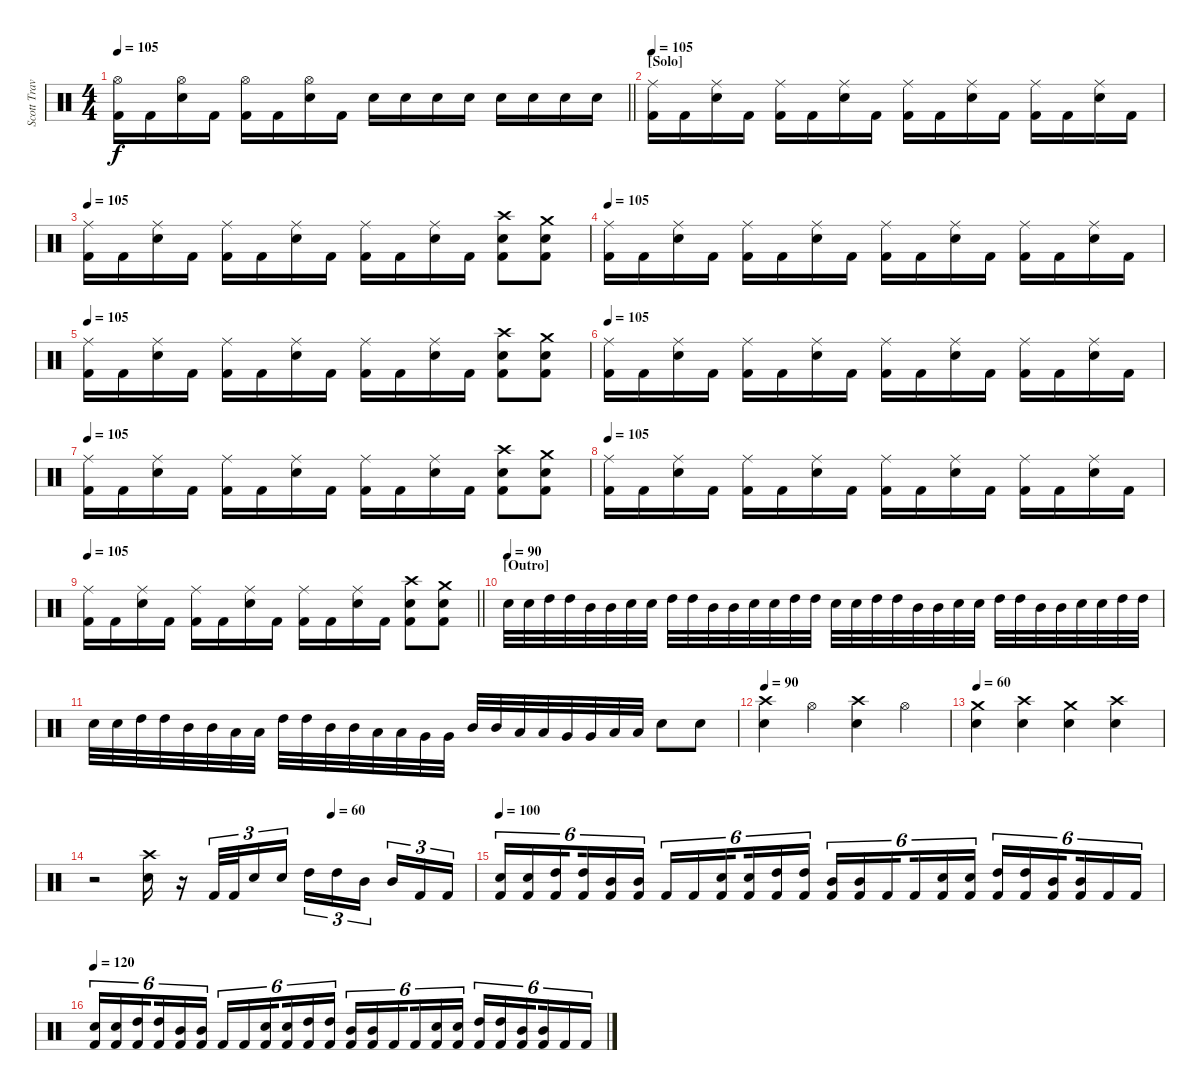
\track ("Scott Travis" "Scott Trav") {instrument percussion}
\staff {score}
\articulation defaults
\ts (4 4)
\tempo 105
\clef neutral
\barLineRight lightlight
\ks c
("Hi-Hat (open)" "Kick (hit) 2").16{dy f} "Kick (hit) 2".16 ("Hi-Hat (open)" "Snare (hit) 2").16 "Kick (hit) 2".16 ("Hi-Hat (open)" "Kick (hit) 2").16 "Kick (hit) 2".16 ("Hi-Hat (open)" "Snare (hit) 2").16 "Kick (hit) 2".16 "Snare (hit) 2".16 "Snare (hit) 2".16 "Snare (hit) 2".16 "Snare (hit) 2".16 "Snare (hit) 2".16 "Snare (hit) 2".16 "Snare (hit) 2".16 "Snare (hit) 2".16 |
\section ("" "[Solo]")
\tempo 105
("Ride (middle)" "Kick (hit) 2").16 "Kick (hit) 2".16 ("Ride (middle)" "Snare (hit) 2").16 "Kick (hit) 2".16 ("Ride (middle)" "Kick (hit) 2").16 "Kick (hit) 2".16 ("Ride (middle)" "Snare (hit) 2").16 "Kick (hit) 2".16 ("Ride (middle)" "Kick (hit) 2").16 "Kick (hit) 2".16 ("Ride (middle)" "Snare (hit) 2").16 "Kick (hit) 2".16 ("Ride (middle)" "Kick (hit) 2").16 "Kick (hit) 2".16 ("Ride (middle)" "Snare (hit) 2").16 "Kick (hit) 2".16 |
\tempo 105
("Ride (middle)" "Kick (hit) 2").16 "Kick (hit) 2".16 ("Ride (middle)" "Snare (hit) 2").16 "Kick (hit) 2".16 ("Ride (middle)" "Kick (hit) 2").16 "Kick (hit) 2".16 ("Ride (middle)" "Snare (hit) 2").16 "Kick (hit) 2".16 ("Ride (middle)" "Kick (hit) 2").16 "Kick (hit) 2".16 ("Ride (middle)" "Snare (hit) 2").16 "Kick (hit) 2".16 ("Crash high (hit)" "Snare (hit) 2" "Kick (hit) 2").8 ("Crash medium (hit)" "Snare (hit) 2" "Kick (hit) 2").8 |
\tempo 105
("Ride (middle)" "Kick (hit) 2").16 "Kick (hit) 2".16 ("Ride (middle)" "Snare (hit) 2").16 "Kick (hit) 2".16 ("Ride (middle)" "Kick (hit) 2").16 "Kick (hit) 2".16 ("Ride (middle)" "Snare (hit) 2").16 "Kick (hit) 2".16 ("Ride (middle)" "Kick (hit) 2").16 "Kick (hit) 2".16 ("Ride (middle)" "Snare (hit) 2").16 "Kick (hit) 2".16 ("Ride (middle)" "Kick (hit) 2").16 "Kick (hit) 2".16 ("Ride (middle)" "Snare (hit) 2").16 "Kick (hit) 2".16 |
\tempo 105
("Ride (middle)" "Kick (hit) 2").16 "Kick (hit) 2".16 ("Ride (middle)" "Snare (hit) 2").16 "Kick (hit) 2".16 ("Ride (middle)" "Kick (hit) 2").16 "Kick (hit) 2".16 ("Ride (middle)" "Snare (hit) 2").16 "Kick (hit) 2".16 ("Ride (middle)" "Kick (hit) 2").16 "Kick (hit) 2".16 ("Ride (middle)" "Snare (hit) 2").16 "Kick (hit) 2".16 ("Crash high (hit)" "Snare (hit) 2" "Kick (hit) 2").8 ("Crash medium (hit)" "Snare (hit) 2" "Kick (hit) 2").8 |
\tempo 105
("Ride (middle)" "Kick (hit) 2").16 "Kick (hit) 2".16 ("Ride (middle)" "Snare (hit) 2").16 "Kick (hit) 2".16 ("Ride (middle)" "Kick (hit) 2").16 "Kick (hit) 2".16 ("Ride (middle)" "Snare (hit) 2").16 "Kick (hit) 2".16 ("Ride (middle)" "Kick (hit) 2").16 "Kick (hit) 2".16 ("Ride (middle)" "Snare (hit) 2").16 "Kick (hit) 2".16 ("Ride (middle)" "Kick (hit) 2").16 "Kick (hit) 2".16 ("Ride (middle)" "Snare (hit) 2").16 "Kick (hit) 2".16 |
\tempo 105
("Ride (middle)" "Kick (hit) 2").16 "Kick (hit) 2".16 ("Ride (middle)" "Snare (hit) 2").16 "Kick (hit) 2".16 ("Ride (middle)" "Kick (hit) 2").16 "Kick (hit) 2".16 ("Ride (middle)" "Snare (hit) 2").16 "Kick (hit) 2".16 ("Ride (middle)" "Kick (hit) 2").16 "Kick (hit) 2".16 ("Ride (middle)" "Snare (hit) 2").16 "Kick (hit) 2".16 ("Crash high (hit)" "Snare (hit) 2" "Kick (hit) 2").8 ("Crash medium (hit)" "Snare (hit) 2" "Kick (hit) 2").8 |
\tempo 105
("Ride (middle)" "Kick (hit) 2").16 "Kick (hit) 2".16 ("Ride (middle)" "Snare (hit) 2").16 "Kick (hit) 2".16 ("Ride (middle)" "Kick (hit) 2").16 "Kick (hit) 2".16 ("Ride (middle)" "Snare (hit) 2").16 "Kick (hit) 2".16 ("Ride (middle)" "Kick (hit) 2").16 "Kick (hit) 2".16 ("Ride (middle)" "Snare (hit) 2").16 "Kick (hit) 2".16 ("Ride (middle)" "Kick (hit) 2").16 "Kick (hit) 2".16 ("Ride (middle)" "Snare (hit) 2").16 "Kick (hit) 2".16 |
\tempo 105
\barLineRight lightlight
("Ride (middle)" "Kick (hit) 2").16 "Kick (hit) 2".16 ("Ride (middle)" "Snare (hit) 2").16 "Kick (hit) 2".16 ("Ride (middle)" "Kick (hit) 2").16 "Kick (hit) 2".16 ("Ride (middle)" "Snare (hit) 2").16 "Kick (hit) 2".16 ("Ride (middle)" "Kick (hit) 2").16 "Kick (hit) 2".16 ("Ride (middle)" "Snare (hit) 2").16 "Kick (hit) 2".16 ("Crash high (hit)" "Snare (hit) 2" "Kick (hit) 2").8 ("Crash medium (hit)" "Snare (hit) 2" "Kick (hit) 2").8 |
\section ("" "[Outro]")
\tempo (90)
"Snare (hit) 2".32 "Snare (hit) 2".32 "High Tom (hit)".32 "High Tom (hit)".32 "Mid Tom (hit)".32 "Mid Tom (hit)".32 "Snare (hit) 2".32 "Snare (hit) 2".32 "High Tom (hit)".32 "High Tom (hit)".32 "Mid Tom (hit)".32 "Mid Tom (hit)".32 "Snare (hit) 2".32 "Snare (hit) 2".32 "High Tom (hit)".32 "High Tom (hit)".32 "Snare (hit) 2".32 "Snare (hit) 2".32 "High Tom (hit)".32 "High Tom (hit)".32 "Mid Tom (hit)".32 "Mid Tom (hit)".32 "Snare (hit) 2".32 "Snare (hit) 2".32 "High Tom (hit)".32 "High Tom (hit)".32 "Mid Tom (hit)".32 "Mid Tom (hit)".32 "Snare (hit) 2".32 "Snare (hit) 2".32 "High Tom (hit)".32 "High Tom (hit)".32 |
"Snare (hit) 2".32 "Snare (hit) 2".32 "High Tom (hit)".32 "High Tom (hit)".32 "Mid Tom (hit)".32 "Mid Tom (hit)".32 "Low Tom (hit)".32 "Low Tom (hit)".32 "High Tom (hit)".32 "High Tom (hit)".32 "Mid Tom (hit)".32 "Mid Tom (hit)".32 "Low Tom (hit)".32 "Low Tom (hit)".32 "Very Low Tom (hit)".32 "Very Low Tom (hit)".32 "Mid Tom (hit)".32 "Mid Tom (hit)".32 "Low Tom (hit)".32 "Low Tom (hit)".32 "Very Low Tom (hit)".32 "Very Low Tom (hit)".32 "Low Floor Tom (hit)".32 "Low Floor Tom (hit)".32 "Snare (hit) 2".8 "Snare (hit) 2".8 |
\tempo 90
("Crash high (hit)" "Snare (hit) 2").4 "Hi-Hat (open)".4 ("Crash high (hit)" "Snare (hit) 2").4 "Hi-Hat (open)".4 |
\tempo 60
("Crash medium (hit)" "Snare (hit) 2").4 ("Crash high (hit)" "Snare (hit) 2").4 ("Crash medium (hit)" "Snare (hit) 2").4 ("Crash high (hit)" "Snare (hit) 2").4 |
\tempo (60 0.625)
r.2 ("Crash high (hit)" "Snare (hit) 2").16 r.16 "Kick (hit) 2".32{tu (3 2)} "Kick (hit) 2".32{tu (3 2)} "Snare (hit) 2".16{tu (3 2)} "Snare (hit) 2".16{tu (3 2)} "High Tom (hit)".16{tu (3 2)} "High Tom (hit)".16{tu (3 2)} "Mid Tom (hit)".16{tu (3 2) beam splitsecondary} "Mid Tom (hit)".16{tu (3 2)} "Kick (hit) 2".16{tu (3 2)} "Kick (hit) 2".16{tu (3 2)} |
\tempo 100
("Snare (hit) 2" "Kick (hit) 2").16{tu (6 4)} ("Snare (hit) 2" "Kick (hit) 2").16{tu (6 4)} ("High Tom (hit)" "Kick (hit) 2").16{tu (6 4) beam splitsecondary} ("High Tom (hit)" "Kick (hit) 2").16{tu (6 4)} ("Mid Tom (hit)" "Kick (hit) 2").16{tu (6 4)} ("Mid Tom (hit)" "Kick (hit) 2").16{tu (6 4)} "Kick (hit) 2".16{tu (6 4)} "Kick (hit) 2".16{tu (6 4)} ("Snare (hit) 2" "Kick (hit) 2").16{tu (6 4) beam splitsecondary} ("Snare (hit) 2" "Kick (hit) 2").16{tu (6 4)} ("High Tom (hit)" "Kick (hit) 2").16{tu (6 4)} ("High Tom (hit)" "Kick (hit) 2").16{tu (6 4)} ("Mid Tom (hit)" "Kick (hit) 2").16{tu (6 4)} ("Mid Tom (hit)" "Kick (hit) 2").16{tu (6 4)} "Kick (hit) 2".16{tu (6 4) beam splitsecondary} "Kick (hit) 2".16{tu (6 4)} ("Snare (hit) 2" "Kick (hit) 2").16{tu (6 4)} ("Snare (hit) 2" "Kick (hit) 2").16{tu (6 4)} ("High Tom (hit)" "Kick (hit) 2").16{tu (6 4)} ("High Tom (hit)" "Kick (hit) 2").16{tu (6 4)} ("Mid Tom (hit)" "Kick (hit) 2").16{tu (6 4) beam splitsecondary} ("Mid Tom (hit)" "Kick (hit) 2").16{tu (6 4)} "Kick (hit) 2".16{tu (6 4)} "Kick (hit) 2".16{tu (6 4)} |
\tempo 120
("Snare (hit) 2" "Kick (hit) 2").16{tu (6 4)} ("Snare (hit) 2" "Kick (hit) 2").16{tu (6 4)} ("High Tom (hit)" "Kick (hit) 2").16{tu (6 4) beam splitsecondary} ("High Tom (hit)" "Kick (hit) 2").16{tu (6 4)} ("Mid Tom (hit)" "Kick (hit) 2").16{tu (6 4)} ("Mid Tom (hit)" "Kick (hit) 2").16{tu (6 4)} "Kick (hit) 2".16{tu (6 4)} "Kick (hit) 2".16{tu (6 4)} ("Snare (hit) 2" "Kick (hit) 2").16{tu (6 4) beam splitsecondary} ("Snare (hit) 2" "Kick (hit) 2").16{tu (6 4)} ("High Tom (hit)" "Kick (hit) 2").16{tu (6 4)} ("High Tom (hit)" "Kick (hit) 2").16{tu (6 4)} ("Mid Tom (hit)" "Kick (hit) 2").16{tu (6 4)} ("Mid Tom (hit)" "Kick (hit) 2").16{tu (6 4)} "Kick (hit) 2".16{tu (6 4) beam splitsecondary} "Kick (hit) 2".16{tu (6 4)} ("Snare (hit) 2" "Kick (hit) 2").16{tu (6 4)} ("Snare (hit) 2" "Kick (hit) 2").16{tu (6 4)} ("High Tom (hit)" "Kick (hit) 2").16{tu (6 4)} ("High Tom (hit)" "Kick (hit) 2").16{tu (6 4)} ("Mid Tom (hit)" "Kick (hit) 2").16{tu (6 4) beam splitsecondary} ("Mid Tom (hit)" "Kick (hit) 2").16{tu (6 4)} "Kick (hit) 2".16{tu (6 4)} "Kick (hit) 2".16{tu (6 4)}
